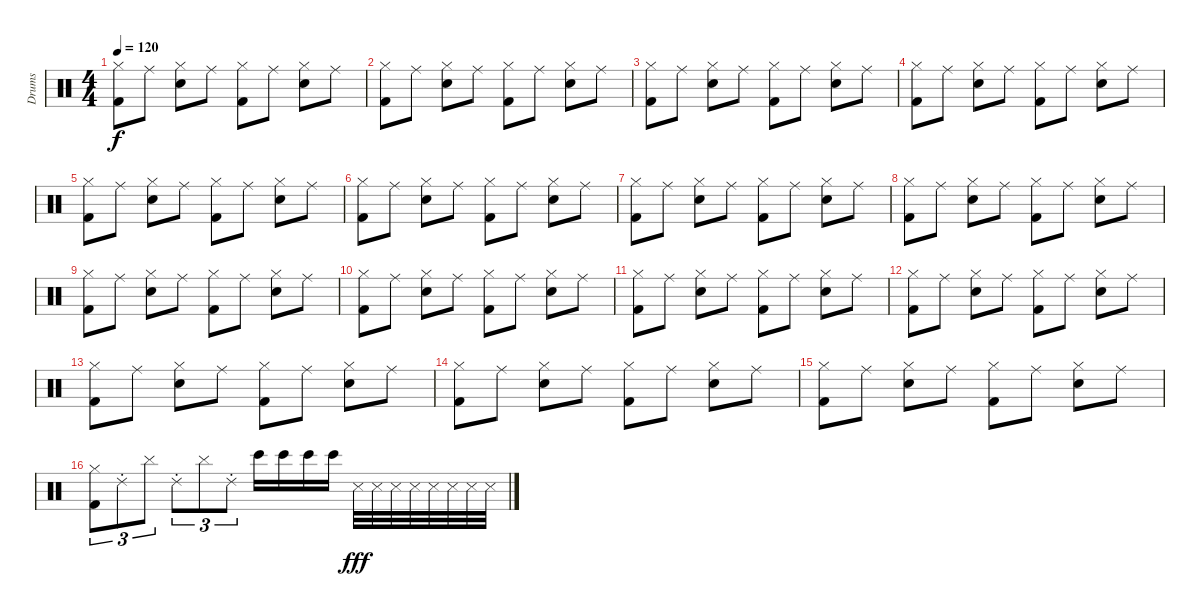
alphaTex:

\track ("Drums" "Drums") {instrument percussion}
\staff {score}
\articulation defaults
\ts (4 4)
\tempo 120
\clef neutral
\ks c
("Hi-Hat (closed)" "Kick (hit) 2").8{dy f} "Ride (middle)".8 ("Hi-Hat (closed)" "Electric Snare (hit)").8 "Ride (middle)".8 ("Hi-Hat (closed)" "Kick (hit) 2").8 "Ride (middle)".8 ("Hi-Hat (closed)" "Electric Snare (hit)").8 "Ride (middle)".8 |
("Hi-Hat (closed)" "Kick (hit) 2").8 "Ride (middle)".8 ("Hi-Hat (closed)" "Electric Snare (hit)").8 "Ride (middle)".8 ("Hi-Hat (closed)" "Kick (hit) 2").8 "Ride (middle)".8 ("Hi-Hat (closed)" "Electric Snare (hit)").8 "Ride (middle)".8 |
("Hi-Hat (closed)" "Kick (hit) 2").8 "Ride (middle)".8 ("Hi-Hat (closed)" "Electric Snare (hit)").8 "Ride (middle)".8 ("Hi-Hat (closed)" "Kick (hit) 2").8 "Ride (middle)".8 ("Hi-Hat (closed)" "Electric Snare (hit)").8 "Ride (middle)".8 |
("Hi-Hat (closed)" "Kick (hit) 2").8 "Ride (middle)".8 ("Hi-Hat (closed)" "Electric Snare (hit)").8 "Ride (middle)".8 ("Hi-Hat (closed)" "Kick (hit) 2").8 "Ride (middle)".8 ("Hi-Hat (closed)" "Electric Snare (hit)").8 "Ride (middle)".8 |
("Hi-Hat (closed)" "Kick (hit) 2").8 "Ride (middle)".8 ("Hi-Hat (closed)" "Electric Snare (hit)").8 "Ride (middle)".8 ("Hi-Hat (closed)" "Kick (hit) 2").8 "Ride (middle)".8 ("Hi-Hat (closed)" "Electric Snare (hit)").8 "Ride (middle)".8 |
("Hi-Hat (closed)" "Kick (hit) 2").8 "Ride (middle)".8 ("Hi-Hat (closed)" "Electric Snare (hit)").8 "Ride (middle)".8 ("Hi-Hat (closed)" "Kick (hit) 2").8 "Ride (middle)".8 ("Hi-Hat (closed)" "Electric Snare (hit)").8 "Ride (middle)".8 |
("Hi-Hat (closed)" "Kick (hit) 2").8 "Ride (middle)".8 ("Hi-Hat (closed)" "Electric Snare (hit)").8 "Ride (middle)".8 ("Hi-Hat (closed)" "Kick (hit) 2").8 "Ride (middle)".8 ("Hi-Hat (closed)" "Electric Snare (hit)").8 "Ride (middle)".8 |
("Hi-Hat (closed)" "Kick (hit) 2").8 "Ride (middle)".8 ("Hi-Hat (closed)" "Electric Snare (hit)").8 "Ride (middle)".8 ("Hi-Hat (closed)" "Kick (hit) 2").8 "Ride (middle)".8 ("Hi-Hat (closed)" "Electric Snare (hit)").8 "Ride (middle)".8 |
("Hi-Hat (closed)" "Kick (hit) 2").8 "Ride (middle)".8 ("Hi-Hat (closed)" "Electric Snare (hit)").8 "Ride (middle)".8 ("Hi-Hat (closed)" "Kick (hit) 2").8 "Ride (middle)".8 ("Hi-Hat (closed)" "Electric Snare (hit)").8 "Ride (middle)".8 |
("Hi-Hat (closed)" "Kick (hit) 2").8 "Ride (middle)".8 ("Hi-Hat (closed)" "Electric Snare (hit)").8 "Ride (middle)".8 ("Hi-Hat (closed)" "Kick (hit) 2").8 "Ride (middle)".8 ("Hi-Hat (closed)" "Electric Snare (hit)").8 "Ride (middle)".8 |
("Hi-Hat (closed)" "Kick (hit) 2").8 "Ride (middle)".8 ("Hi-Hat (closed)" "Electric Snare (hit)").8 "Ride (middle)".8 ("Hi-Hat (closed)" "Kick (hit) 2").8 "Ride (middle)".8 ("Hi-Hat (closed)" "Electric Snare (hit)").8 "Ride (middle)".8 |
("Hi-Hat (closed)" "Kick (hit) 2").8 "Ride (middle)".8 ("Hi-Hat (closed)" "Electric Snare (hit)").8 "Ride (middle)".8 ("Hi-Hat (closed)" "Kick (hit) 2").8 "Ride (middle)".8 ("Hi-Hat (closed)" "Electric Snare (hit)").8 "Ride (middle)".8 |
("Hi-Hat (closed)" "Kick (hit) 2").8 "Ride (middle)".8 ("Hi-Hat (closed)" "Electric Snare (hit)").8 "Ride (middle)".8 ("Hi-Hat (closed)" "Kick (hit) 2").8 "Ride (middle)".8 ("Hi-Hat (closed)" "Electric Snare (hit)").8 "Ride (middle)".8 |
("Hi-Hat (closed)" "Kick (hit) 2").8 "Ride (middle)".8 ("Hi-Hat (closed)" "Electric Snare (hit)").8 "Ride (middle)".8 ("Hi-Hat (closed)" "Kick (hit) 2").8 "Ride (middle)".8 ("Hi-Hat (closed)" "Electric Snare (hit)").8 "Ride (middle)".8 |
("Hi-Hat (closed)" "Kick (hit) 2").8 "Ride (middle)".8 ("Hi-Hat (closed)" "Electric Snare (hit)").8 "Ride (middle)".8 ("Hi-Hat (closed)" "Kick (hit) 2").8 "Ride (middle)".8 ("Hi-Hat (closed)" "Electric Snare (hit)").8 "Ride (middle)".8 |
("Hi-Hat (closed)" "Kick (hit) 2").8{tu (3 2)} "Ride (choke) 2".8{tu (3 2)} "Cymbal (hit)".8{tu (3 2)} "Ride (choke) 2".8{tu (3 2)} "Cymbal (hit)".8{tu (3 2)} "Ride (choke) 2".8{tu (3 2)} "Bongo High (hit)".16 "Bongo High (hit)".16 "Bongo High (hit)".16 "Bongo High (hit)".16 "Metronome (hit)".32{dy fff} "Metronome (hit)".32 "Metronome (hit)".32 "Metronome (hit)".32 "Metronome (hit)".32 "Metronome (hit)".32 "Metronome (hit)".32 "Metronome (hit)".32
